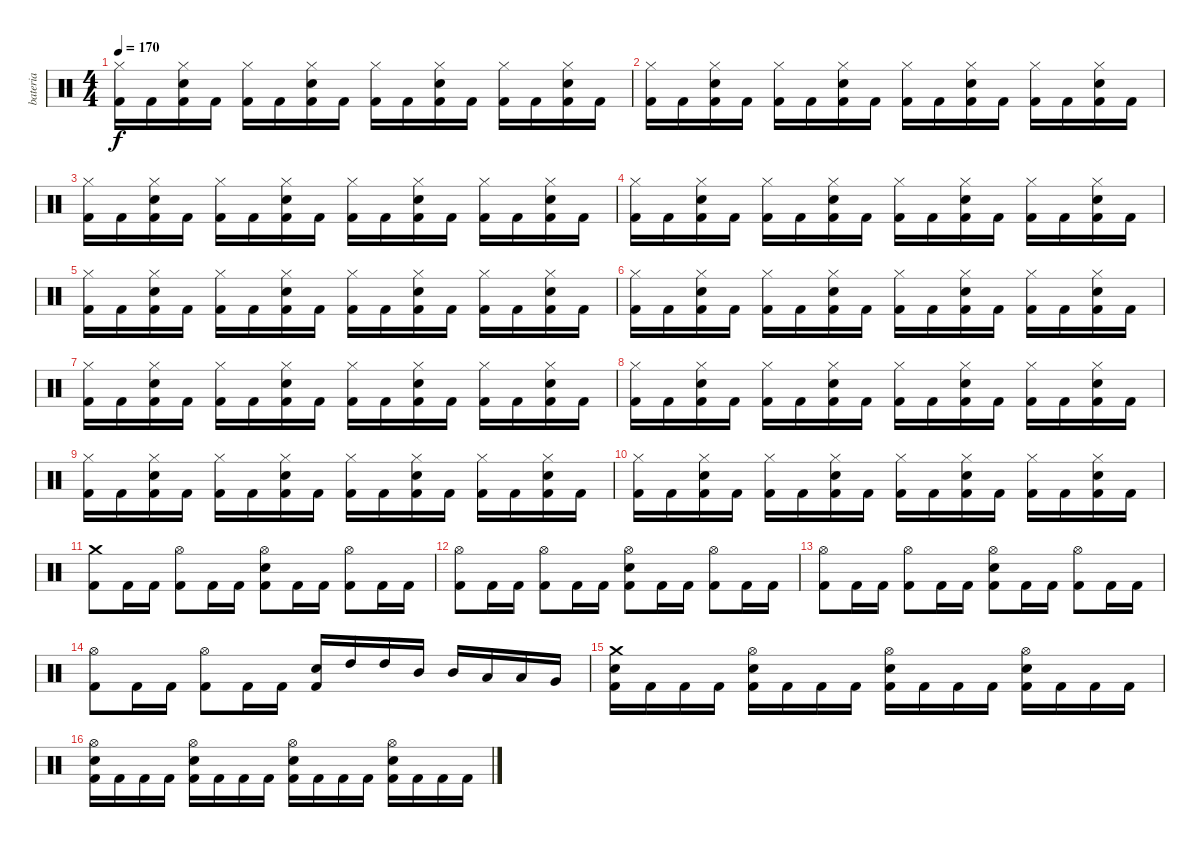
\track ("bateria" "bateria") {instrument percussion}
\staff {score}
\articulation defaults
\ts (4 4)
\tempo 170
\clef neutral
\ks c
("Hi-Hat (closed)" "Kick (hit) 2").16{dy f} "Kick (hit) 2".16 ("Hi-Hat (closed)" "Snare (hit) 2" "Kick (hit) 2").16 "Kick (hit) 2".16 ("Hi-Hat (closed)" "Kick (hit) 2").16 "Kick (hit) 2".16 ("Hi-Hat (closed)" "Snare (hit) 2" "Kick (hit) 2").16 "Kick (hit) 2".16 ("Hi-Hat (closed)" "Kick (hit) 2").16 "Kick (hit) 2".16 ("Hi-Hat (closed)" "Snare (hit) 2" "Kick (hit) 2").16 "Kick (hit) 2".16 ("Hi-Hat (closed)" "Kick (hit) 2").16 "Kick (hit) 2".16 ("Hi-Hat (closed)" "Snare (hit) 2" "Kick (hit) 2").16 "Kick (hit) 2".16 |
("Hi-Hat (closed)" "Kick (hit) 2").16 "Kick (hit) 2".16 ("Hi-Hat (closed)" "Snare (hit) 2" "Kick (hit) 2").16 "Kick (hit) 2".16 ("Hi-Hat (closed)" "Kick (hit) 2").16 "Kick (hit) 2".16 ("Hi-Hat (closed)" "Snare (hit) 2" "Kick (hit) 2").16 "Kick (hit) 2".16 ("Hi-Hat (closed)" "Kick (hit) 2").16 "Kick (hit) 2".16 ("Hi-Hat (closed)" "Snare (hit) 2" "Kick (hit) 2").16 "Kick (hit) 2".16 ("Hi-Hat (closed)" "Kick (hit) 2").16 "Kick (hit) 2".16 ("Hi-Hat (closed)" "Snare (hit) 2" "Kick (hit) 2").16 "Kick (hit) 2".16 |
("Hi-Hat (closed)" "Kick (hit) 2").16 "Kick (hit) 2".16 ("Hi-Hat (closed)" "Snare (hit) 2" "Kick (hit) 2").16 "Kick (hit) 2".16 ("Hi-Hat (closed)" "Kick (hit) 2").16 "Kick (hit) 2".16 ("Hi-Hat (closed)" "Snare (hit) 2" "Kick (hit) 2").16 "Kick (hit) 2".16 ("Hi-Hat (closed)" "Kick (hit) 2").16 "Kick (hit) 2".16 ("Hi-Hat (closed)" "Snare (hit) 2" "Kick (hit) 2").16 "Kick (hit) 2".16 ("Hi-Hat (closed)" "Kick (hit) 2").16 "Kick (hit) 2".16 ("Hi-Hat (closed)" "Snare (hit) 2" "Kick (hit) 2").16 "Kick (hit) 2".16 |
("Hi-Hat (closed)" "Kick (hit) 2").16 "Kick (hit) 2".16 ("Hi-Hat (closed)" "Snare (hit) 2" "Kick (hit) 2").16 "Kick (hit) 2".16 ("Hi-Hat (closed)" "Kick (hit) 2").16 "Kick (hit) 2".16 ("Hi-Hat (closed)" "Snare (hit) 2" "Kick (hit) 2").16 "Kick (hit) 2".16 ("Hi-Hat (closed)" "Kick (hit) 2").16 "Kick (hit) 2".16 ("Hi-Hat (closed)" "Snare (hit) 2" "Kick (hit) 2").16 "Kick (hit) 2".16 ("Hi-Hat (closed)" "Kick (hit) 2").16 "Kick (hit) 2".16 ("Hi-Hat (closed)" "Snare (hit) 2" "Kick (hit) 2").16 "Kick (hit) 2".16 |
("Hi-Hat (closed)" "Kick (hit) 2").16 "Kick (hit) 2".16 ("Hi-Hat (closed)" "Snare (hit) 2" "Kick (hit) 2").16 "Kick (hit) 2".16 ("Hi-Hat (closed)" "Kick (hit) 2").16 "Kick (hit) 2".16 ("Hi-Hat (closed)" "Snare (hit) 2" "Kick (hit) 2").16 "Kick (hit) 2".16 ("Hi-Hat (closed)" "Kick (hit) 2").16 "Kick (hit) 2".16 ("Hi-Hat (closed)" "Snare (hit) 2" "Kick (hit) 2").16 "Kick (hit) 2".16 ("Hi-Hat (closed)" "Kick (hit) 2").16 "Kick (hit) 2".16 ("Hi-Hat (closed)" "Snare (hit) 2" "Kick (hit) 2").16 "Kick (hit) 2".16 |
("Hi-Hat (closed)" "Kick (hit) 2").16 "Kick (hit) 2".16 ("Hi-Hat (closed)" "Snare (hit) 2" "Kick (hit) 2").16 "Kick (hit) 2".16 ("Hi-Hat (closed)" "Kick (hit) 2").16 "Kick (hit) 2".16 ("Hi-Hat (closed)" "Snare (hit) 2" "Kick (hit) 2").16 "Kick (hit) 2".16 ("Hi-Hat (closed)" "Kick (hit) 2").16 "Kick (hit) 2".16 ("Hi-Hat (closed)" "Snare (hit) 2" "Kick (hit) 2").16 "Kick (hit) 2".16 ("Hi-Hat (closed)" "Kick (hit) 2").16 "Kick (hit) 2".16 ("Hi-Hat (closed)" "Snare (hit) 2" "Kick (hit) 2").16 "Kick (hit) 2".16 |
("Hi-Hat (closed)" "Kick (hit) 2").16 "Kick (hit) 2".16 ("Hi-Hat (closed)" "Snare (hit) 2" "Kick (hit) 2").16 "Kick (hit) 2".16 ("Hi-Hat (closed)" "Kick (hit) 2").16 "Kick (hit) 2".16 ("Hi-Hat (closed)" "Snare (hit) 2" "Kick (hit) 2").16 "Kick (hit) 2".16 ("Hi-Hat (closed)" "Kick (hit) 2").16 "Kick (hit) 2".16 ("Hi-Hat (closed)" "Snare (hit) 2" "Kick (hit) 2").16 "Kick (hit) 2".16 ("Hi-Hat (closed)" "Kick (hit) 2").16 "Kick (hit) 2".16 ("Hi-Hat (closed)" "Snare (hit) 2" "Kick (hit) 2").16 "Kick (hit) 2".16 |
("Hi-Hat (closed)" "Kick (hit) 2").16 "Kick (hit) 2".16 ("Hi-Hat (closed)" "Snare (hit) 2" "Kick (hit) 2").16 "Kick (hit) 2".16 ("Hi-Hat (closed)" "Kick (hit) 2").16 "Kick (hit) 2".16 ("Hi-Hat (closed)" "Snare (hit) 2" "Kick (hit) 2").16 "Kick (hit) 2".16 ("Hi-Hat (closed)" "Kick (hit) 2").16 "Kick (hit) 2".16 ("Hi-Hat (closed)" "Snare (hit) 2" "Kick (hit) 2").16 "Kick (hit) 2".16 ("Hi-Hat (closed)" "Kick (hit) 2").16 "Kick (hit) 2".16 ("Hi-Hat (closed)" "Snare (hit) 2" "Kick (hit) 2").16 "Kick (hit) 2".16 |
("Hi-Hat (closed)" "Kick (hit) 2").16 "Kick (hit) 2".16 ("Hi-Hat (closed)" "Snare (hit) 2" "Kick (hit) 2").16 "Kick (hit) 2".16 ("Hi-Hat (closed)" "Kick (hit) 2").16 "Kick (hit) 2".16 ("Hi-Hat (closed)" "Snare (hit) 2" "Kick (hit) 2").16 "Kick (hit) 2".16 ("Hi-Hat (closed)" "Kick (hit) 2").16 "Kick (hit) 2".16 ("Hi-Hat (closed)" "Snare (hit) 2" "Kick (hit) 2").16 "Kick (hit) 2".16 ("Hi-Hat (closed)" "Kick (hit) 2").16 "Kick (hit) 2".16 ("Hi-Hat (closed)" "Snare (hit) 2" "Kick (hit) 2").16 "Kick (hit) 2".16 |
("Hi-Hat (closed)" "Kick (hit) 2").16 "Kick (hit) 2".16 ("Hi-Hat (closed)" "Snare (hit) 2" "Kick (hit) 2").16 "Kick (hit) 2".16 ("Hi-Hat (closed)" "Kick (hit) 2").16 "Kick (hit) 2".16 ("Hi-Hat (closed)" "Snare (hit) 2" "Kick (hit) 2").16 "Kick (hit) 2".16 ("Hi-Hat (closed)" "Kick (hit) 2").16 "Kick (hit) 2".16 ("Hi-Hat (closed)" "Snare (hit) 2" "Kick (hit) 2").16 "Kick (hit) 2".16 ("Hi-Hat (closed)" "Kick (hit) 2").16 "Kick (hit) 2".16 ("Hi-Hat (closed)" "Snare (hit) 2" "Kick (hit) 2").16 "Kick (hit) 2".16 |
("Crash medium (hit)" "Kick (hit) 2").8 "Kick (hit) 2".16 "Kick (hit) 2".16 ("Hi-Hat (open)" "Kick (hit) 2").8 "Kick (hit) 2".16 "Kick (hit) 2".16 ("Hi-Hat (open)" "Snare (hit) 2" "Kick (hit) 2").8 "Kick (hit) 2".16 "Kick (hit) 2".16 ("Hi-Hat (open)" "Kick (hit) 2").8 "Kick (hit) 2".16 "Kick (hit) 2".16 |
("Hi-Hat (open)" "Kick (hit) 2").8 "Kick (hit) 2".16 "Kick (hit) 2".16 ("Hi-Hat (open)" "Kick (hit) 2").8 "Kick (hit) 2".16 "Kick (hit) 2".16 ("Hi-Hat (open)" "Snare (hit) 2" "Kick (hit) 2").8 "Kick (hit) 2".16 "Kick (hit) 2".16 ("Hi-Hat (open)" "Kick (hit) 2").8 "Kick (hit) 2".16 "Kick (hit) 2".16 |
("Hi-Hat (open)" "Kick (hit) 2").8 "Kick (hit) 2".16 "Kick (hit) 2".16 ("Hi-Hat (open)" "Kick (hit) 2").8 "Kick (hit) 2".16 "Kick (hit) 2".16 ("Hi-Hat (open)" "Snare (hit) 2" "Kick (hit) 2").8 "Kick (hit) 2".16 "Kick (hit) 2".16 ("Hi-Hat (open)" "Kick (hit) 2").8 "Kick (hit) 2".16 "Kick (hit) 2".16 |
("Hi-Hat (open)" "Kick (hit) 2").8 "Kick (hit) 2".16 "Kick (hit) 2".16 ("Hi-Hat (open)" "Kick (hit) 2").8 "Kick (hit) 2".16 "Kick (hit) 2".16 ("Snare (hit) 2" "Kick (hit) 2").16 "High Tom (hit)".16 "High Tom (hit)".16 "Mid Tom (hit)".16 "Mid Tom (hit)".16 "Low Tom (hit)".16 "Low Tom (hit)".16 "Very Low Tom (hit)".16 |
("Crash medium (hit)" "Snare (hit) 2" "Kick (hit) 2").16 "Kick (hit) 2".16 "Kick (hit) 2".16 "Kick (hit) 2".16 ("Hi-Hat (open)" "Snare (hit) 2" "Kick (hit) 2").16 "Kick (hit) 2".16 "Kick (hit) 2".16 "Kick (hit) 2".16 ("Hi-Hat (open)" "Snare (hit) 2" "Kick (hit) 2").16 "Kick (hit) 2".16 "Kick (hit) 2".16 "Kick (hit) 2".16 ("Hi-Hat (open)" "Snare (hit) 2" "Kick (hit) 2").16 "Kick (hit) 2".16 "Kick (hit) 2".16 "Kick (hit) 2".16 |
("Hi-Hat (open)" "Snare (hit) 2" "Kick (hit) 2").16 "Kick (hit) 2".16 "Kick (hit) 2".16 "Kick (hit) 2".16 ("Hi-Hat (open)" "Snare (hit) 2" "Kick (hit) 2").16 "Kick (hit) 2".16 "Kick (hit) 2".16 "Kick (hit) 2".16 ("Hi-Hat (open)" "Snare (hit) 2" "Kick (hit) 2").16 "Kick (hit) 2".16 "Kick (hit) 2".16 "Kick (hit) 2".16 ("Hi-Hat (open)" "Snare (hit) 2" "Kick (hit) 2").16 "Kick (hit) 2".16 "Kick (hit) 2".16 "Kick (hit) 2".16
